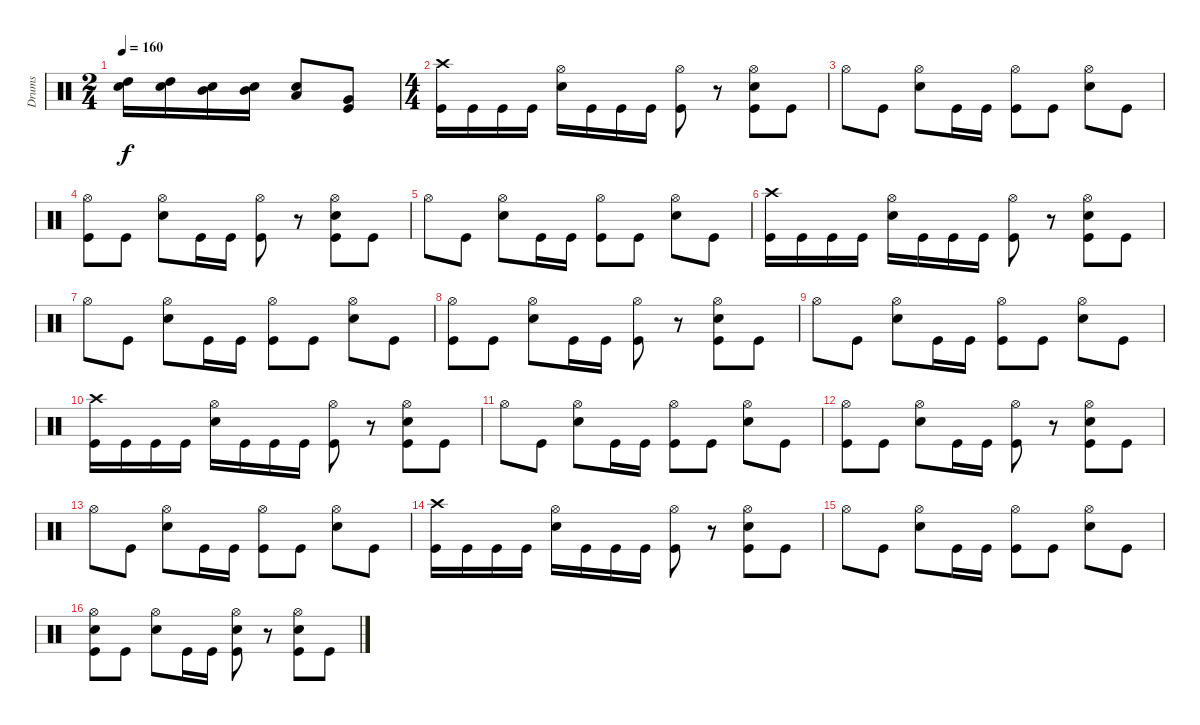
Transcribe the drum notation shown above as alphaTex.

\track ("Drums" "Drums") {instrument percussion}
\staff {score}
\articulation defaults
\ts (2 4)
\tempo 160
\clef neutral
\ks c
("High Tom (hit)" "Electric Snare (hit)").16{dy f} ("High Tom (hit)" "Electric Snare (hit)").16 ("Mid Tom (hit)" "Electric Snare (hit)").16 ("Mid Tom (hit)" "Electric Snare (hit)").16 ("Low Tom (hit)" "Electric Snare (hit)").8 ("Very Low Tom (hit)" "Kick (hit)").8 |
\ts (4 4)
("Crash high (hit)" "Kick (hit)").16 "Kick (hit)".16 "Kick (hit)".16 "Kick (hit)".16 ("Hi-Hat (open)" "Electric Snare (hit)").16 "Kick (hit)".16 "Kick (hit)".16 "Kick (hit)".16 ("Hi-Hat (open)" "Kick (hit)").8 r.8 ("Hi-Hat (open)" "Electric Snare (hit)" "Kick (hit)").8 "Kick (hit)".8 |
"Hi-Hat (open)".8 "Kick (hit)".8 ("Hi-Hat (open)" "Electric Snare (hit)").8 "Kick (hit)".16 "Kick (hit)".16 ("Hi-Hat (open)" "Kick (hit)").8 "Kick (hit)".8 ("Hi-Hat (open)" "Electric Snare (hit)").8 "Kick (hit)".8 |
("Hi-Hat (open)" "Kick (hit)").8 "Kick (hit)".8 ("Hi-Hat (open)" "Electric Snare (hit)").8 "Kick (hit)".16 "Kick (hit)".16 ("Hi-Hat (open)" "Kick (hit)").8 r.8 ("Hi-Hat (open)" "Electric Snare (hit)" "Kick (hit)").8 "Kick (hit)".8 |
"Hi-Hat (open)".8 "Kick (hit)".8 ("Hi-Hat (open)" "Electric Snare (hit)").8 "Kick (hit)".16 "Kick (hit)".16 ("Hi-Hat (open)" "Kick (hit)").8 "Kick (hit)".8 ("Hi-Hat (open)" "Electric Snare (hit)").8 "Kick (hit)".8 |
("Crash high (hit)" "Kick (hit)").16 "Kick (hit)".16 "Kick (hit)".16 "Kick (hit)".16 ("Hi-Hat (open)" "Electric Snare (hit)").16 "Kick (hit)".16 "Kick (hit)".16 "Kick (hit)".16 ("Hi-Hat (open)" "Kick (hit)").8 r.8 ("Hi-Hat (open)" "Electric Snare (hit)" "Kick (hit)").8 "Kick (hit)".8 |
"Hi-Hat (open)".8 "Kick (hit)".8 ("Hi-Hat (open)" "Electric Snare (hit)").8 "Kick (hit)".16 "Kick (hit)".16 ("Hi-Hat (open)" "Kick (hit)").8 "Kick (hit)".8 ("Hi-Hat (open)" "Electric Snare (hit)").8 "Kick (hit)".8 |
("Hi-Hat (open)" "Kick (hit)").8 "Kick (hit)".8 ("Hi-Hat (open)" "Electric Snare (hit)").8 "Kick (hit)".16 "Kick (hit)".16 ("Hi-Hat (open)" "Kick (hit)").8 r.8 ("Hi-Hat (open)" "Electric Snare (hit)" "Kick (hit)").8 "Kick (hit)".8 |
"Hi-Hat (open)".8 "Kick (hit)".8 ("Hi-Hat (open)" "Electric Snare (hit)").8 "Kick (hit)".16 "Kick (hit)".16 ("Hi-Hat (open)" "Kick (hit)").8 "Kick (hit)".8 ("Hi-Hat (open)" "Electric Snare (hit)").8 "Kick (hit)".8 |
("Crash high (hit)" "Kick (hit)").16 "Kick (hit)".16 "Kick (hit)".16 "Kick (hit)".16 ("Hi-Hat (open)" "Electric Snare (hit)").16 "Kick (hit)".16 "Kick (hit)".16 "Kick (hit)".16 ("Hi-Hat (open)" "Kick (hit)").8 r.8 ("Hi-Hat (open)" "Electric Snare (hit)" "Kick (hit)").8 "Kick (hit)".8 |
"Hi-Hat (open)".8 "Kick (hit)".8 ("Hi-Hat (open)" "Electric Snare (hit)").8 "Kick (hit)".16 "Kick (hit)".16 ("Hi-Hat (open)" "Kick (hit)").8 "Kick (hit)".8 ("Hi-Hat (open)" "Electric Snare (hit)").8 "Kick (hit)".8 |
("Hi-Hat (open)" "Kick (hit)").8 "Kick (hit)".8 ("Hi-Hat (open)" "Electric Snare (hit)").8 "Kick (hit)".16 "Kick (hit)".16 ("Hi-Hat (open)" "Kick (hit)").8 r.8 ("Hi-Hat (open)" "Electric Snare (hit)" "Kick (hit)").8 "Kick (hit)".8 |
"Hi-Hat (open)".8 "Kick (hit)".8 ("Hi-Hat (open)" "Electric Snare (hit)").8 "Kick (hit)".16 "Kick (hit)".16 ("Hi-Hat (open)" "Kick (hit)").8 "Kick (hit)".8 ("Hi-Hat (open)" "Electric Snare (hit)").8 "Kick (hit)".8 |
("Crash high (hit)" "Kick (hit)").16 "Kick (hit)".16 "Kick (hit)".16 "Kick (hit)".16 ("Hi-Hat (open)" "Electric Snare (hit)").16 "Kick (hit)".16 "Kick (hit)".16 "Kick (hit)".16 ("Hi-Hat (open)" "Kick (hit)").8 r.8 ("Hi-Hat (open)" "Electric Snare (hit)" "Kick (hit)").8 "Kick (hit)".8 |
"Hi-Hat (open)".8 "Kick (hit)".8 ("Hi-Hat (open)" "Electric Snare (hit)").8 "Kick (hit)".16 "Kick (hit)".16 ("Hi-Hat (open)" "Kick (hit)").8 "Kick (hit)".8 ("Hi-Hat (open)" "Electric Snare (hit)").8 "Kick (hit)".8 |
("Hi-Hat (open)" "Electric Snare (hit)" "Kick (hit)").8 "Kick (hit)".8 ("Hi-Hat (open)" "Electric Snare (hit)").8 "Kick (hit)".16 "Kick (hit)".16 ("Hi-Hat (open)" "Electric Snare (hit)" "Kick (hit)").8 r.8 ("Hi-Hat (open)" "Electric Snare (hit)" "Kick (hit)").8 "Kick (hit)".8
